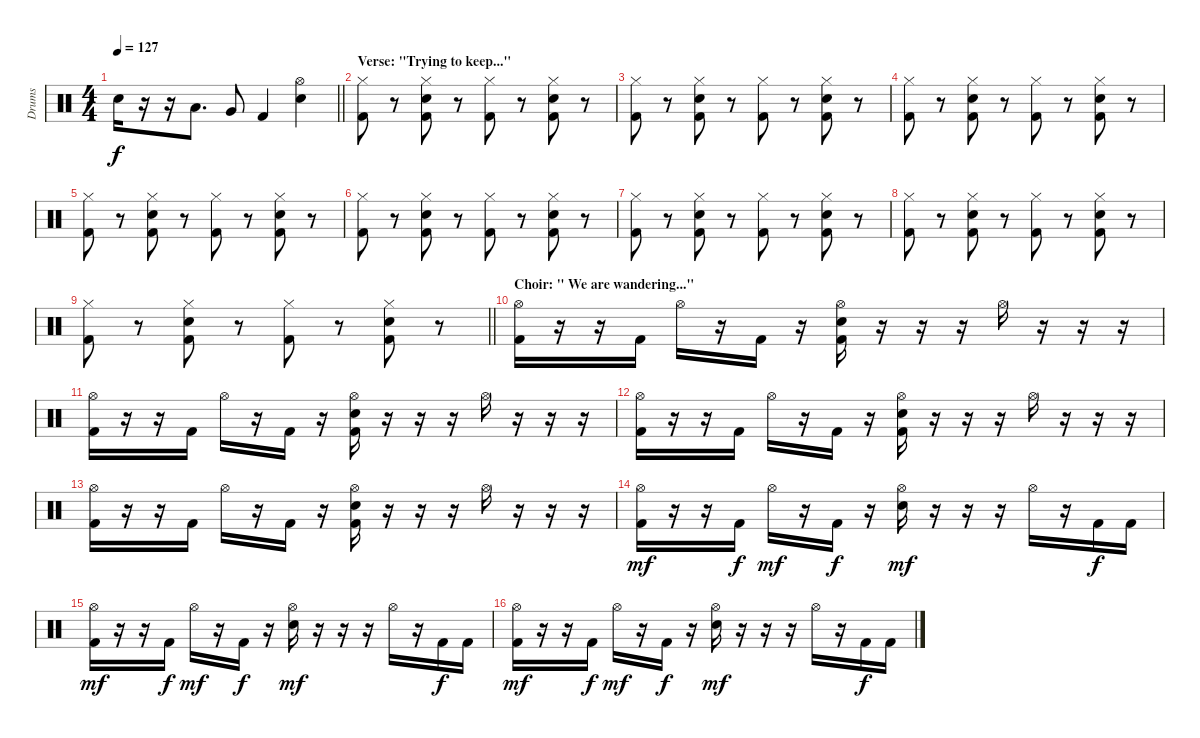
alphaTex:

\track ("Drums" "Drums") {instrument percussion}
\staff {score}
\articulation defaults
\ts (4 4)
\tempo 127
\clef neutral
\barLineRight lightlight
\ks c "Electric Snare (hit)".16{dy f}
r.16 r.16 "Low Tom (hit)".8{d} "Very Low Tom (hit)".8 "Kick (hit) 2".4 ("Electric Snare (hit)" "Hi-Hat (open)").4 |
\section ("" "Verse: \"Trying to keep...\"")
("Kick (hit) 2" "Hi-Hat (closed)").8 r.8 ("Kick (hit) 2" "Electric Snare (hit)" "Hi-Hat (closed)").8 r.8 ("Kick (hit) 2" "Hi-Hat (closed)").8 r.8 ("Kick (hit) 2" "Electric Snare (hit)" "Hi-Hat (closed)").8 r.8 |
("Kick (hit) 2" "Hi-Hat (closed)").8 r.8 ("Kick (hit) 2" "Electric Snare (hit)" "Hi-Hat (closed)").8 r.8 ("Kick (hit) 2" "Hi-Hat (closed)").8 r.8 ("Kick (hit) 2" "Electric Snare (hit)" "Hi-Hat (closed)").8 r.8 |
("Kick (hit) 2" "Hi-Hat (closed)").8 r.8 ("Kick (hit) 2" "Electric Snare (hit)" "Hi-Hat (closed)").8 r.8 ("Kick (hit) 2" "Hi-Hat (closed)").8 r.8 ("Kick (hit) 2" "Electric Snare (hit)" "Hi-Hat (closed)").8 r.8 |
("Kick (hit) 2" "Hi-Hat (closed)").8 r.8 ("Kick (hit) 2" "Electric Snare (hit)" "Hi-Hat (closed)").8 r.8 ("Kick (hit) 2" "Hi-Hat (closed)").8 r.8 ("Kick (hit) 2" "Electric Snare (hit)" "Hi-Hat (closed)").8 r.8 |
("Kick (hit) 2" "Hi-Hat (closed)").8 r.8 ("Kick (hit) 2" "Electric Snare (hit)" "Hi-Hat (closed)").8 r.8 ("Kick (hit) 2" "Hi-Hat (closed)").8 r.8 ("Kick (hit) 2" "Electric Snare (hit)" "Hi-Hat (closed)").8 r.8 |
("Kick (hit) 2" "Hi-Hat (closed)").8 r.8 ("Kick (hit) 2" "Electric Snare (hit)" "Hi-Hat (closed)").8 r.8 ("Kick (hit) 2" "Hi-Hat (closed)").8 r.8 ("Kick (hit) 2" "Electric Snare (hit)" "Hi-Hat (closed)").8 r.8 |
("Kick (hit) 2" "Hi-Hat (closed)").8 r.8 ("Kick (hit) 2" "Electric Snare (hit)" "Hi-Hat (closed)").8 r.8 ("Kick (hit) 2" "Hi-Hat (closed)").8 r.8 ("Kick (hit) 2" "Electric Snare (hit)" "Hi-Hat (closed)").8 r.8 |
\barLineRight lightlight
("Kick (hit) 2" "Hi-Hat (closed)").8 r.8 ("Kick (hit) 2" "Electric Snare (hit)" "Hi-Hat (closed)").8 r.8 ("Kick (hit) 2" "Hi-Hat (closed)").8 r.8 ("Kick (hit) 2" "Electric Snare (hit)" "Hi-Hat (closed)").8 r.8 |
\section ("" "Choir: \" We are wandering...\"")
("Kick (hit) 2" "Hi-Hat (open)").16 r.16 r.16 "Kick (hit) 2".16 "Hi-Hat (open)".16 r.16 "Kick (hit) 2".16 r.16 ("Kick (hit) 2" "Electric Snare (hit)" "Hi-Hat (open)").16 r.16 r.16 r.16 "Hi-Hat (open)".16 r.16 r.16 r.16 |
("Kick (hit) 2" "Hi-Hat (open)").16 r.16 r.16 "Kick (hit) 2".16 "Hi-Hat (open)".16 r.16 "Kick (hit) 2".16 r.16 ("Kick (hit) 2" "Electric Snare (hit)" "Hi-Hat (open)").16 r.16 r.16 r.16 "Hi-Hat (open)".16 r.16 r.16 r.16 |
("Kick (hit) 2" "Hi-Hat (open)").16 r.16 r.16 "Kick (hit) 2".16 "Hi-Hat (open)".16 r.16 "Kick (hit) 2".16 r.16 ("Kick (hit) 2" "Electric Snare (hit)" "Hi-Hat (open)").16 r.16 r.16 r.16 "Hi-Hat (open)".16 r.16 r.16 r.16 |
("Kick (hit) 2" "Hi-Hat (open)").16 r.16 r.16 "Kick (hit) 2".16 "Hi-Hat (open)".16 r.16 "Kick (hit) 2".16 r.16 ("Kick (hit) 2" "Electric Snare (hit)" "Hi-Hat (open)").16 r.16 r.16 r.16 "Hi-Hat (open)".16 r.16 r.16 r.16 |
("Kick (hit) 2" "Hi-Hat (open)").16{dy mf} r.16 r.16 "Kick (hit) 2".16{dy f} "Hi-Hat (open)".16{dy mf} r.16 "Kick (hit) 2".16{dy f} r.16 ("Electric Snare (hit)" "Hi-Hat (open)").16{dy mf} r.16 r.16 r.16 "Hi-Hat (open)".16 r.16 "Kick (hit) 2".16{dy f} "Kick (hit) 2".16 |
("Kick (hit) 2" "Hi-Hat (open)").16{dy mf} r.16 r.16 "Kick (hit) 2".16{dy f} "Hi-Hat (open)".16{dy mf} r.16 "Kick (hit) 2".16{dy f} r.16 ("Electric Snare (hit)" "Hi-Hat (open)").16{dy mf} r.16 r.16 r.16 "Hi-Hat (open)".16 r.16 "Kick (hit) 2".16{dy f} "Kick (hit) 2".16 |
("Kick (hit) 2" "Hi-Hat (open)").16{dy mf} r.16 r.16 "Kick (hit) 2".16{dy f} "Hi-Hat (open)".16{dy mf} r.16 "Kick (hit) 2".16{dy f} r.16 ("Electric Snare (hit)" "Hi-Hat (open)").16{dy mf} r.16 r.16 r.16 "Hi-Hat (open)".16 r.16 "Kick (hit) 2".16{dy f} "Kick (hit) 2".16
